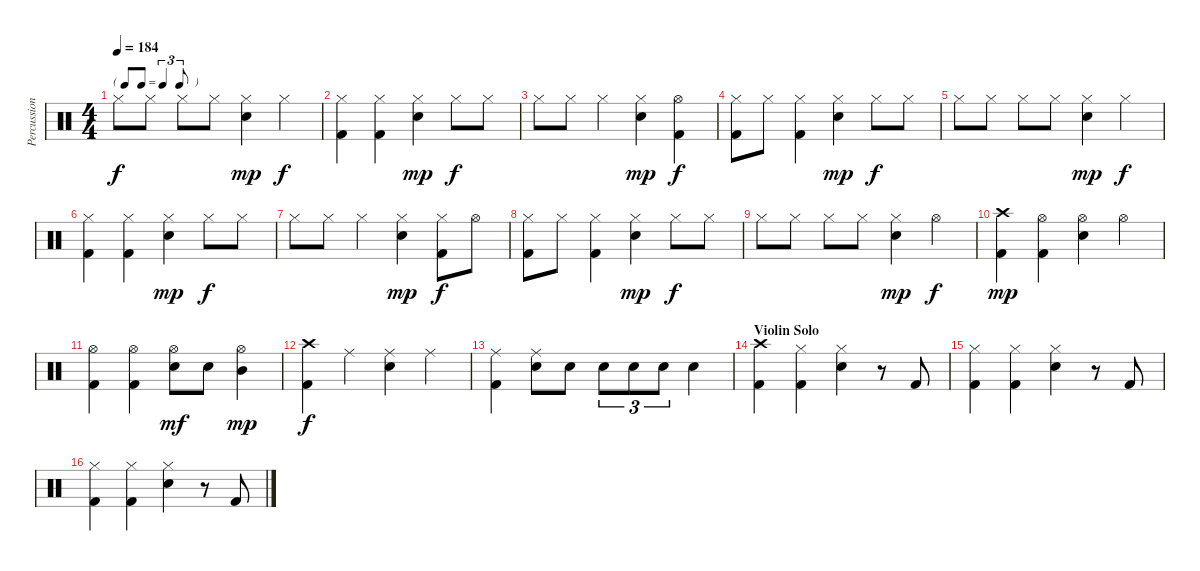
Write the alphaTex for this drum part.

\track ("Percussion" "Percussion") {instrument percussion}
\staff {score}
\articulation defaults
\ts (4 4)
\tf triplet8th
\tempo 184
\clef neutral
\ks c "Hi-Hat (closed)".8{dy f} "Hi-Hat (closed)".8 "Hi-Hat (closed)".8 "Hi-Hat (closed)".8
("Hi-Hat (closed)" "Electric Snare (hit)").4{dy mp} "Hi-Hat (closed)".4{dy f} |
("Hi-Hat (closed)" "Kick (hit) 2").4 ("Hi-Hat (closed)" "Kick (hit) 2").4 ("Hi-Hat (closed)" "Electric Snare (hit)").4{dy mp} "Hi-Hat (closed)".8{dy f} "Hi-Hat (closed)".8 |
"Hi-Hat (closed)".8 "Hi-Hat (closed)".8 "Hi-Hat (closed)".4 ("Hi-Hat (closed)" "Electric Snare (hit)").4{dy mp} ("Hi-Hat (open)" "Kick (hit) 2").4{dy f} |
("Hi-Hat (closed)" "Kick (hit) 2").8 "Hi-Hat (closed)".8 ("Hi-Hat (closed)" "Kick (hit) 2").4 ("Hi-Hat (closed)" "Electric Snare (hit)").4{dy mp} "Hi-Hat (closed)".8{dy f} "Hi-Hat (closed)".8 |
"Hi-Hat (closed)".8 "Hi-Hat (closed)".8 "Hi-Hat (closed)".8 "Hi-Hat (closed)".8 ("Hi-Hat (closed)" "Electric Snare (hit)").4{dy mp} "Hi-Hat (closed)".4{dy f} |
("Hi-Hat (closed)" "Kick (hit) 2").4 ("Hi-Hat (closed)" "Kick (hit) 2").4 ("Hi-Hat (closed)" "Electric Snare (hit)").4{dy mp} "Hi-Hat (closed)".8{dy f} "Hi-Hat (closed)".8 |
"Hi-Hat (closed)".8 "Hi-Hat (closed)".8 "Hi-Hat (closed)".4 ("Hi-Hat (closed)" "Electric Snare (hit)").4{dy mp} ("Hi-Hat (closed)" "Kick (hit) 2").8{dy f} "Hi-Hat (open)".8 |
("Hi-Hat (closed)" "Kick (hit) 2").8 "Hi-Hat (closed)".8 ("Hi-Hat (closed)" "Kick (hit) 2").4 ("Hi-Hat (closed)" "Electric Snare (hit)").4{dy mp} "Hi-Hat (closed)".8{dy f} "Hi-Hat (closed)".8 |
"Hi-Hat (closed)".8 "Hi-Hat (closed)".8 "Hi-Hat (closed)".8 "Hi-Hat (closed)".8 ("Hi-Hat (closed)" "Electric Snare (hit)").4{dy mp} "Hi-Hat (open)".4{dy f} |
("Crash high (hit)" "Kick (hit) 2").4{dy mp} ("Hi-Hat (open)" "Kick (hit) 2").4 ("Hi-Hat (open)" "Electric Snare (hit)").4 "Hi-Hat (open)".4 |
("Hi-Hat (open)" "Kick (hit) 2").4 ("Hi-Hat (open)" "Kick (hit) 2").4 ("Hi-Hat (open)" "Electric Snare (hit)").8{dy mf} "Electric Snare (hit)".8 ("Hi-Hat (open)" "Mid Tom (hit)").4{dy mp} |
("Crash high (hit)" "Kick (hit) 2").4{dy f} "Ride (middle)".4 ("Ride (middle)" "Electric Snare (hit)").4 "Ride (middle)".4 |
("Ride (middle)" "Kick (hit) 2").4 ("Ride (middle)" "Electric Snare (hit)").8 "Electric Snare (hit)".8 "Electric Snare (hit)".8{tu (3 2)} "Electric Snare (hit)".8{tu (3 2)} "Electric Snare (hit)".8{tu (3 2)} "Electric Snare (hit)".4 |
\section ("" "Violin Solo")
("Crash high (hit)" "Kick (hit) 2").4 ("Hi-Hat (closed)" "Kick (hit) 2").4 ("Hi-Hat (closed)" "Electric Snare (hit)").4 r.8 "Kick (hit) 2".8 |
("Hi-Hat (closed)" "Kick (hit) 2").4 ("Hi-Hat (closed)" "Kick (hit) 2").4 ("Hi-Hat (closed)" "Electric Snare (hit)").4 r.8 "Kick (hit) 2".8 |
("Hi-Hat (closed)" "Kick (hit) 2").4 ("Hi-Hat (closed)" "Kick (hit) 2").4 ("Hi-Hat (closed)" "Electric Snare (hit)").4 r.8 "Kick (hit) 2".8
